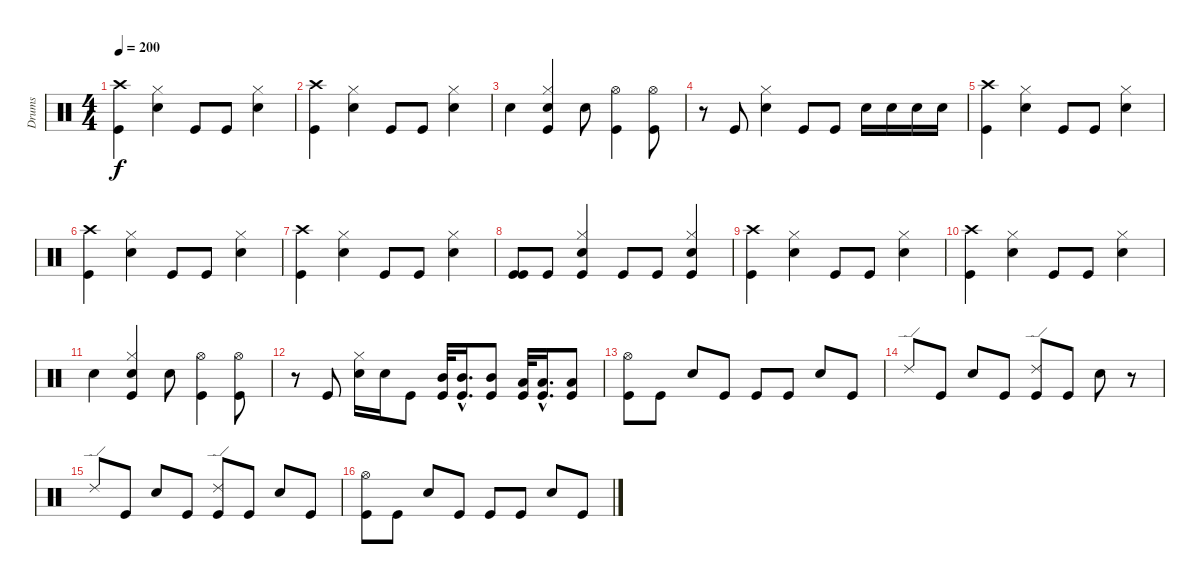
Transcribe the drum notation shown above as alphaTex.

\track ("Drums" "Drums") {instrument percussion}
\staff {score}
\articulation defaults
\ts (4 4)
\tempo 200
\clef neutral
\ks c
("Crash high (hit)" "Kick (hit)").4{dy f} ("Hi-Hat (closed)" "Snare (hit) 2").4 "Kick (hit)".8 "Kick (hit)".8 ("Hi-Hat (closed)" "Snare (hit) 2").4 |
("Crash high (hit)" "Kick (hit)").4 ("Hi-Hat (closed)" "Snare (hit) 2").4 "Kick (hit)".8 "Kick (hit)".8 ("Hi-Hat (closed)" "Snare (hit) 2").4 |
"Snare (hit) 2".4 ("Hi-Hat (closed)" "Snare (hit) 2" "Kick (hit)").4 "Snare (hit) 2".8 ("Hi-Hat (open)" "Kick (hit)").4 ("Hi-Hat (open)" "Kick (hit)").8 |
r.8 "Kick (hit)".8 ("Hi-Hat (closed)" "Snare (hit) 2").4 "Kick (hit)".8 "Kick (hit)".8 "Snare (hit) 2".16 "Snare (hit) 2".16 "Snare (hit) 2".16 "Snare (hit) 2".16 |
("Crash high (hit)" "Kick (hit)").4 ("Hi-Hat (closed)" "Snare (hit) 2").4 "Kick (hit)".8 "Kick (hit)".8 ("Hi-Hat (closed)" "Snare (hit) 2").4 |
("Crash high (hit)" "Kick (hit)").4 ("Hi-Hat (closed)" "Snare (hit) 2").4 "Kick (hit)".8 "Kick (hit)".8 ("Hi-Hat (closed)" "Snare (hit) 2").4 |
("Crash high (hit)" "Kick (hit)").4 ("Hi-Hat (closed)" "Snare (hit) 2").4 "Kick (hit)".8 "Kick (hit)".8 ("Hi-Hat (closed)" "Snare (hit) 2").4 |
("Kick (hit)" "Kick (hit)").8 "Kick (hit)".8 ("Hi-Hat (closed)" "Snare (hit) 2" "Kick (hit)").4 "Kick (hit)".8 "Kick (hit)".8 ("Hi-Hat (closed)" "Snare (hit) 2" "Kick (hit)").4 |
("Crash high (hit)" "Kick (hit)").4 ("Hi-Hat (closed)" "Snare (hit) 2").4 "Kick (hit)".8 "Kick (hit)".8 ("Hi-Hat (closed)" "Snare (hit) 2").4 |
("Crash high (hit)" "Kick (hit)").4 ("Hi-Hat (closed)" "Snare (hit) 2").4 "Kick (hit)".8 "Kick (hit)".8 ("Hi-Hat (closed)" "Snare (hit) 2").4 |
"Snare (hit) 2".4 ("Hi-Hat (closed)" "Snare (hit) 2" "Kick (hit)").4 "Snare (hit) 2".8 ("Hi-Hat (open)" "Kick (hit)").4 ("Hi-Hat (open)" "Kick (hit)").8 |
r.8 "Kick (hit)".8 ("Hi-Hat (closed)" "Snare (hit) 2").16 "Snare (hit) 2".16 "Kick (hit)".8 ("Mid Tom (hit)" "Kick (hit)").32 ("Mid Tom (hit)"{hac} "Kick (hit)"{hac}).16{d} ("Mid Tom (hit)" "Kick (hit)").8 ("Low Tom (hit)" "Kick (hit)").32 ("Low Tom (hit)"{hac} "Kick (hit)"{hac}).16{d} ("Low Tom (hit)" "Kick (hit)").8 |
("Hi-Hat (open)" "Kick (hit)").8 "Kick (hit)".8 "Snare (hit) 2".8 "Kick (hit)".8 "Kick (hit)".8 "Kick (hit)".8 "Snare (hit) 2".8 "Kick (hit)".8 |
"Ride (edge) 2".8 "Kick (hit)".8 "Snare (hit) 2".8 "Kick (hit)".8 ("Ride (edge) 2" "Kick (hit)").8 "Kick (hit)".8 "Snare (hit) 2".8 r.8 |
"Ride (edge) 2".8 "Kick (hit)".8 "Snare (hit) 2".8 "Kick (hit)".8 ("Ride (edge) 2" "Kick (hit)").8 "Kick (hit)".8 "Snare (hit) 2".8 "Kick (hit)".8 |
("Hi-Hat (open)" "Kick (hit)").8 "Kick (hit)".8 "Snare (hit) 2".8 "Kick (hit)".8 "Kick (hit)".8 "Kick (hit)".8 "Snare (hit) 2".8 "Kick (hit)".8
